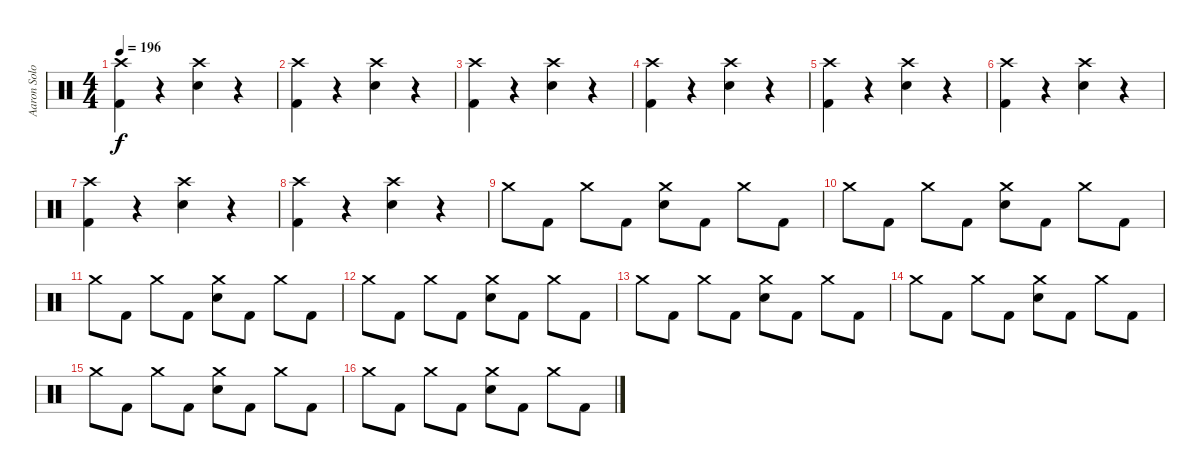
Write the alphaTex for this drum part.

\track ("Aaron Solowoniuk" "Aaron Solo") {instrument percussion}
\staff {score}
\articulation defaults
\ts (4 4)
\tempo 196
\clef neutral
\ks c
("Crash high (hit)" "Kick (hit) 2").4{dy f} r.4 ("Crash high (hit)" "Electric Snare (hit)").4 r.4 |
("Crash high (hit)" "Kick (hit) 2").4 r.4 ("Crash high (hit)" "Electric Snare (hit)").4 r.4 |
("Crash high (hit)" "Kick (hit) 2").4 r.4 ("Crash high (hit)" "Electric Snare (hit)").4 r.4 |
("Crash high (hit)" "Kick (hit) 2").4 r.4 ("Crash high (hit)" "Electric Snare (hit)").4 r.4 |
("Crash high (hit)" "Kick (hit) 2").4 r.4 ("Crash high (hit)" "Electric Snare (hit)").4 r.4 |
("Crash high (hit)" "Kick (hit) 2").4 r.4 ("Crash high (hit)" "Electric Snare (hit)").4 r.4 |
("Crash high (hit)" "Kick (hit) 2").4 r.4 ("Crash high (hit)" "Electric Snare (hit)").4 r.4 |
("Crash high (hit)" "Kick (hit) 2").4 r.4 ("Crash high (hit)" "Electric Snare (hit)").4 r.4 |
"Crash medium (hit)".8 "Kick (hit) 2".8 "Crash medium (hit)".8 "Kick (hit) 2".8 ("Crash medium (hit)" "Electric Snare (hit)").8 "Kick (hit) 2".8 "Crash medium (hit)".8 "Kick (hit) 2".8 |
"Crash medium (hit)".8 "Kick (hit) 2".8 "Crash medium (hit)".8 "Kick (hit) 2".8 ("Crash medium (hit)" "Electric Snare (hit)").8 "Kick (hit) 2".8 "Crash medium (hit)".8 "Kick (hit) 2".8 |
"Crash medium (hit)".8 "Kick (hit) 2".8 "Crash medium (hit)".8 "Kick (hit) 2".8 ("Crash medium (hit)" "Electric Snare (hit)").8 "Kick (hit) 2".8 "Crash medium (hit)".8 "Kick (hit) 2".8 |
"Crash medium (hit)".8 "Kick (hit) 2".8 "Crash medium (hit)".8 "Kick (hit) 2".8 ("Crash medium (hit)" "Electric Snare (hit)").8 "Kick (hit) 2".8 "Crash medium (hit)".8 "Kick (hit) 2".8 |
"Crash medium (hit)".8 "Kick (hit) 2".8 "Crash medium (hit)".8 "Kick (hit) 2".8 ("Crash medium (hit)" "Electric Snare (hit)").8 "Kick (hit) 2".8 "Crash medium (hit)".8 "Kick (hit) 2".8 |
"Crash medium (hit)".8 "Kick (hit) 2".8 "Crash medium (hit)".8 "Kick (hit) 2".8 ("Crash medium (hit)" "Electric Snare (hit)").8 "Kick (hit) 2".8 "Crash medium (hit)".8 "Kick (hit) 2".8 |
"Crash medium (hit)".8 "Kick (hit) 2".8 "Crash medium (hit)".8 "Kick (hit) 2".8 ("Crash medium (hit)" "Electric Snare (hit)").8 "Kick (hit) 2".8 "Crash medium (hit)".8 "Kick (hit) 2".8 |
"Crash medium (hit)".8 "Kick (hit) 2".8 "Crash medium (hit)".8 "Kick (hit) 2".8 ("Crash medium (hit)" "Electric Snare (hit)").8 "Kick (hit) 2".8 "Crash medium (hit)".8 "Kick (hit) 2".8
